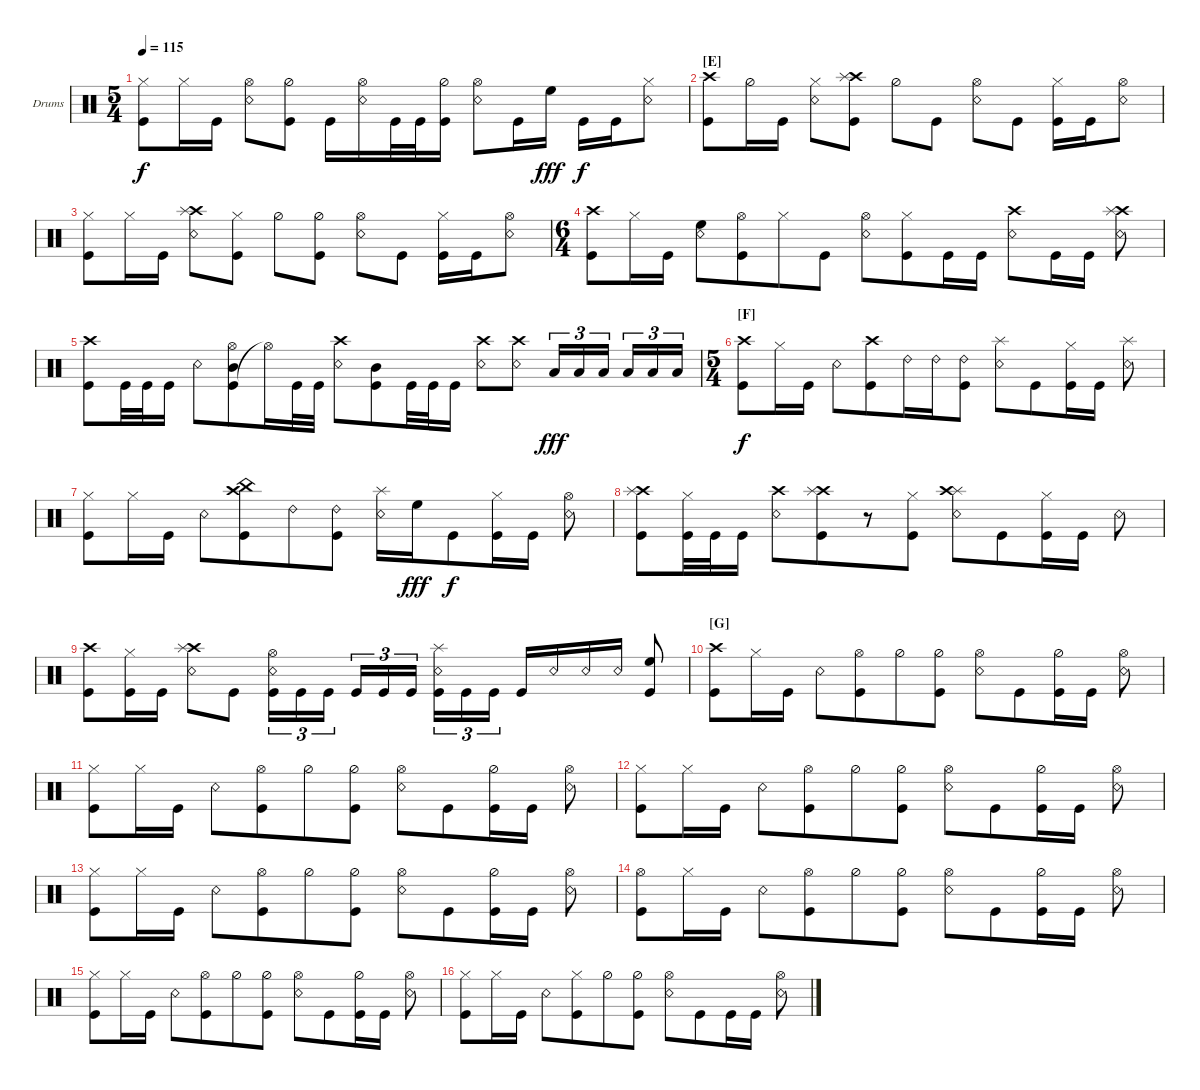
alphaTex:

\defaultSystemsLayout 4
\bracketExtendMode groupsimilarinstruments
\firstSystemTrackNameOrientation horizontal
\otherSystemsTrackNameOrientation horizontal
\track ("Drumkit" "Drums") {instrument percussion}
\staff {score}
\articulation defaults
\ts (5 4)
\tempo 115
\clef neutral
\scale
0.333333
\ks c
("Kick (hit)" "Hi-Hat (closed)").8{dy f} "Hi-Hat (closed)".16 "Kick (hit)".16 ("Snare (rim shot)" "Hi-Hat (open)").8 ("Hi-Hat (half)" "Kick (hit)").8 "Kick (hit)".16 ("Snare (rim shot)" "Hi-Hat (open)").16 "Kick (hit)".32 "Kick (hit)".32 ("Kick (hit)" "Hi-Hat (half)").16 ("Snare (rim shot)" "Hi-Hat (open)").8 "Kick (hit)".16 "High Floor Tom (hit)".16{dy fff} "Kick (hit)".16{dy f} "Kick (hit)".16 ("Snare (rim shot)" "Hi-Hat (closed)").8 |
\section ("E" "")
\scale
0.263889 ("Kick (hit)" "Crash high (hit)").8 "Hi-Hat (half)".16 "Kick (hit)".16 ("Snare (rim shot)" "Hi-Hat (closed)").8 ("Kick (hit)" "Crash high (hit)" "Splash (hit)").8 "Hi-Hat (half)".8 "Kick (hit)".8 ("Snare (rim shot)" "Hi-Hat (open)").8 "Kick (hit)".8 ("Hi-Hat (closed)" "Kick (hit)").16 "Kick (hit)".16 ("Hi-Hat (open)" "Snare (rim shot)").8 |
\scale
0.263889 ("Kick (hit)" "Hi-Hat (closed)").8 "Hi-Hat (closed)".16 "Kick (hit)".16 ("Snare (rim shot)" "Crash high (hit)" "Splash (hit)").8 ("Kick (hit)" "Hi-Hat (closed)").8 "Hi-Hat (half)".8 ("Hi-Hat (half)" "Kick (hit)").8 ("Snare (rim shot)" "Hi-Hat (open)").8 "Kick (hit)".8 ("Hi-Hat (closed)" "Kick (hit)").16 "Kick (hit)".16 ("Hi-Hat (open)" "Snare (rim shot)").8 |
\ts (6 4)
\beaming (8 2 4 3 2 1)
\scale
0.472222 ("Kick (hit)" "Crash high (hit)").8 "Hi-Hat (closed)".16 "Kick (hit)".16 ("Snare (rim shot)" "High Floor Tom (hit)").8 ("Hi-Hat (open)" "Kick (hit)").8 "Hi-Hat (closed)".8 "Kick (hit)".8 ("Snare (rim shot)" "Hi-Hat (open)").8 ("Kick (hit)" "Hi-Hat (closed)").8 "Kick (hit)".16 "Kick (hit)".16 ("Snare (rim shot)" "Crash high (hit)").8 "Kick (hit)".16 "Kick (hit)".16 ("Snare (rim shot)" "Crash high (hit)" "Splash (hit)").8 |
\beaming (8 2 3 3 4)
\scale
0.263889 ("Kick (hit)" "Crash high (hit)").8 "Kick (hit)".32 "Kick (hit)".32 "Kick (hit)".16 "Snare (rim shot)".8 ("Kick (hit)" "Hi-Hat (open)" "Mid Tom (hit)").8 "Hi-Hat (open)"{t}.16 "Kick (hit)".32 "Kick (hit)".32 ("Snare (rim shot)" "Crash high (hit)").8 ("Kick (hit)" "Mid Tom (hit)").8 "Kick (hit)".32 "Kick (hit)".32 "Kick (hit)".16 ("Snare (rim shot)" "Crash high (hit)").8 ("Snare (rim shot)" "Crash high (hit)").8 "Low Tom (hit)".16{tu (3 2) dy fff} "Low Tom (hit)".16{tu (3 2)} "Low Tom (hit)".16{tu (3 2)} "Low Tom (hit)".16{tu (3 2)} "Low Tom (hit)".16{tu (3 2)} "Low Tom (hit)".16{tu (3 2)} |
\ts (5 4)
\beaming (8 2 4 3 1)
\section ("F" "")
\scale
0.472222 ("Kick (hit)" "Crash high (hit)").8{dy f} "Hi-Hat (closed)".16 "Kick (hit)".16 "Snare (rim shot)".8 ("Kick (hit)" "Crash high (hit)").8 "Ride (bell) 2".16 "Ride (bell) 2".16 ("Kick (hit)" "Ride (bell) 2").8 ("Splash (hit)" "Snare (rim shot)").8 "Kick (hit)".8 ("Kick (hit)" "Hi-Hat (closed)").16 "Kick (hit)".16 ("Splash (hit)" "Snare (rim shot)").8 |
\scale
0.263889 ("Kick (hit)" "Hi-Hat (closed)").8 "Hi-Hat (closed)".16 "Kick (hit)".16 "Snare (rim shot)".8 ("Kick (hit)" "Crash high (hit)" "China (hit)").8 "Ride (bell) 2".8 ("Kick (hit)" "Ride (bell) 2").8 ("Splash (hit)" "Snare (rim shot)").16 "High Floor Tom (hit)".16{dy fff} "Kick (hit)".8{dy f} ("Kick (hit)" "Hi-Hat (closed)").16 "Kick (hit)".16 ("Snare (rim shot)" "Hi-Hat (open)").8 |
\scale
0.333333 ("Kick (hit)" "Crash high (hit)" "Splash (hit)").8 ("Kick (hit)" "Hi-Hat (closed)").32 "Kick (hit)".32 "Kick (hit)".16 ("Snare (rim shot)" "Crash high (hit)").8 ("Kick (hit)" "Crash high (hit)" "Splash (hit)").8 r.8 ("Kick (hit)" "Hi-Hat (closed)").8 ("Splash (hit)" "Crash high (hit)" "Snare (rim shot)").8 "Kick (hit)".8 ("Kick (hit)" "Hi-Hat (closed)").16 "Kick (hit)".16 "Snare (rim shot)".8 |
\scale
0.333333 ("Kick (hit)" "Crash high (hit)").8 ("Kick (hit)" "Hi-Hat (closed)").16 "Kick (hit)".16 ("Snare (rim shot)" "Crash high (hit)" "Splash (hit)").8 "Kick (hit)".8 ("Kick (hit)" "Snare (rim shot)" "Hi-Hat (open)").16{tu (3 2)} "Kick (hit)".16{tu (3 2)} "Kick (hit)".16{tu (3 2)} "Kick (hit)".16{tu (3 2)} "Kick (hit)".16{tu (3 2)} "Kick (hit)".16{tu (3 2)} ("Kick (hit)" "Snare (rim shot)" "Splash (hit)").16{tu (3 2)} "Kick (hit)".16{tu (3 2)} "Kick (hit)".16{tu (3 2)} "Kick (hit)".16 "Snare (rim shot)".16 "Snare (rim shot)".16 "Snare (rim shot)".16 ("High Floor Tom (hit)" "Kick (hit)").8 |
\section ("G" "")
\scale
0.333333 ("Kick (hit)" "Crash high (hit)").8 "Hi-Hat (closed)".16 "Kick (hit)".16 "Snare (rim shot)".8 ("Hi-Hat (open)" "Kick (hit)").8 "Hi-Hat (half)".8 ("Hi-Hat (half)" "Kick (hit)").8 ("Snare (rim shot)" "Hi-Hat (open)").8 "Kick (hit)".8 ("Hi-Hat (half)" "Kick (hit)").16 "Kick (hit)".16 ("Snare (rim shot)" "Hi-Hat (open)").8 |
\scale
0.333333 ("Kick (hit)" "Hi-Hat (closed)").8 "Hi-Hat (closed)".16 "Kick (hit)".16 "Snare (rim shot)".8 ("Hi-Hat (open)" "Kick (hit)").8 "Hi-Hat (half)".8 ("Hi-Hat (half)" "Kick (hit)").8 ("Snare (rim shot)" "Hi-Hat (open)").8 "Kick (hit)".8 ("Hi-Hat (half)" "Kick (hit)").16 "Kick (hit)".16 ("Snare (rim shot)" "Hi-Hat (open)").8 |
\scale
0.333333 ("Kick (hit)" "Hi-Hat (closed)").8 "Hi-Hat (closed)".16 "Kick (hit)".16 "Snare (rim shot)".8 ("Hi-Hat (open)" "Kick (hit)").8 "Hi-Hat (half)".8 ("Hi-Hat (half)" "Kick (hit)").8 ("Snare (rim shot)" "Hi-Hat (open)").8 "Kick (hit)".8 ("Hi-Hat (half)" "Kick (hit)").16 "Kick (hit)".16 ("Snare (rim shot)" "Hi-Hat (open)").8 |
\scale
0.333333 ("Kick (hit)" "Hi-Hat (closed)").8 "Hi-Hat (closed)".16 "Kick (hit)".16 "Snare (rim shot)".8 ("Hi-Hat (open)" "Kick (hit)").8 "Hi-Hat (half)".8 ("Hi-Hat (half)" "Kick (hit)").8 ("Snare (rim shot)" "Hi-Hat (open)").8 "Kick (hit)".8 ("Hi-Hat (half)" "Kick (hit)").16 "Kick (hit)".16 ("Snare (rim shot)" "Hi-Hat (open)").8 |
\scale
0.333333 ("Kick (hit)" "Hi-Hat (open)").8 "Hi-Hat (closed)".16 "Kick (hit)".16 "Snare (rim shot)".8 ("Hi-Hat (open)" "Kick (hit)").8 "Hi-Hat (half)".8 ("Hi-Hat (half)" "Kick (hit)").8 ("Snare (rim shot)" "Hi-Hat (open)").8 "Kick (hit)".8 ("Hi-Hat (half)" "Kick (hit)").16 "Kick (hit)".16 ("Snare (rim shot)" "Hi-Hat (open)").8 |
\scale
0.333333 ("Kick (hit)" "Hi-Hat (closed)").8 "Hi-Hat (closed)".16 "Kick (hit)".16 "Snare (rim shot)".8 ("Hi-Hat (open)" "Kick (hit)").8 "Hi-Hat (half)".8 ("Hi-Hat (half)" "Kick (hit)").8 ("Snare (rim shot)" "Hi-Hat (open)").8 "Kick (hit)".8 ("Hi-Hat (half)" "Kick (hit)").16 "Kick (hit)".16 ("Snare (rim shot)" "Hi-Hat (open)").8 |
\scale
0.333333 ("Kick (hit)" "Hi-Hat (closed)").8 "Hi-Hat (closed)".16 "Kick (hit)".16 "Snare (rim shot)".8 ("Hi-Hat (closed)" "Kick (hit)").8 "Hi-Hat (half)".8 ("Hi-Hat (half)" "Kick (hit)").8 ("Snare (rim shot)" "Hi-Hat (open)").8 "Kick (hit)".8 "Kick (hit)".16 "Kick (hit)".16 ("Snare (rim shot)" "Hi-Hat (open)").8
